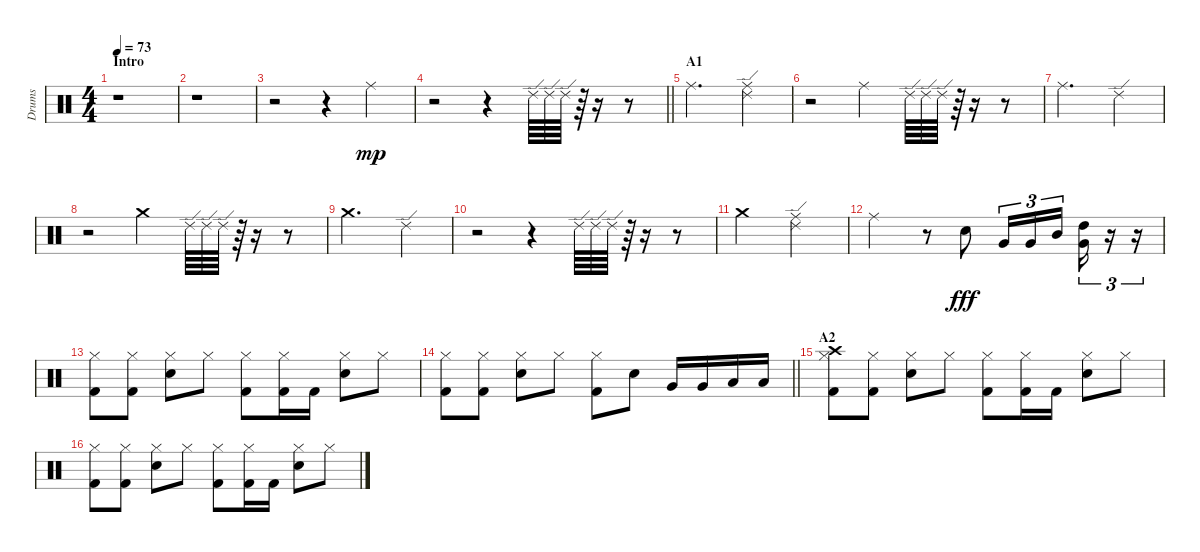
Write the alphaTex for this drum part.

\track ("Drums" "Drums") {instrument percussion}
\staff {score}
\articulation defaults
\ts (4 4)
\section ("" "Intro")
\tempo 73
\clef neutral
\ks c
r.1{dy mp} |
r.1 |
r.2 r.4 "Ride (middle)".4 |
\barLineRight lightlight
r.2 r.4 "Ride (edge) 2".64 "Ride (edge) 2".64 "Ride (edge) 2".64 r.64 r.16 r.8 |
\section ("" "A1")
"Ride (middle)".2{d} ("Ride (edge) 2" "Ride (middle)").4 |
r.2 "Ride (middle)".4 "Ride (edge) 2".64 "Ride (edge) 2".64 "Ride (edge) 2".64 r.64 r.16 r.8 |
"Ride (middle)".2{d} "Ride (edge) 2".4 |
r.2 "Crash medium (hit)".4 "Ride (edge) 2".64 "Ride (edge) 2".64 "Ride (edge) 2".64 r.64 r.16 r.8 |
"Crash medium (hit)".2{d} "Ride (edge) 2".4 |
r.2 r.4 "Ride (edge) 2".64 "Ride (edge) 2".64 "Ride (edge) 2".64 r.64 r.16 r.8 |
"Crash medium (hit)".2 ("Ride (edge) 2" "Ride (middle)").2 |
"Ride (middle)".2 r.8 "Snare (hit) 2".8{dy fff} "Very Low Tom (hit)".16{tu (3 2)} "Very Low Tom (hit)".16{tu (3 2)} "Mid Tom (hit)".16{tu (3 2)} ("High Tom (hit)" "Very Low Tom (hit)").16{tu (3 2)} r.16{tu (3 2)} r.16{tu (3 2)} |
("Hi-Hat (closed)" "Kick (hit) 2").8 ("Hi-Hat (closed)" "Kick (hit) 2").8 ("Hi-Hat (closed)" "Snare (hit) 2").8 "Hi-Hat (closed)".8 ("Hi-Hat (closed)" "Kick (hit) 2").8 ("Hi-Hat (closed)" "Kick (hit) 2").16 "Kick (hit) 2".16 ("Hi-Hat (closed)" "Snare (hit) 2").8 "Hi-Hat (closed)".8 |
\barLineRight lightlight
("Hi-Hat (closed)" "Kick (hit) 2").8 ("Hi-Hat (closed)" "Kick (hit) 2").8 ("Hi-Hat (closed)" "Snare (hit) 2").8 "Hi-Hat (closed)".8 ("Hi-Hat (closed)" "Kick (hit) 2").8 "Snare (hit) 2".8 "Very Low Tom (hit)".16 "Very Low Tom (hit)".16 "Low Tom (hit)".16 "Low Tom (hit)".16 |
\section ("" "A2")
("Hi-Hat (closed)" "Crash high (hit)" "Kick (hit) 2").8 ("Hi-Hat (closed)" "Kick (hit) 2").8 ("Hi-Hat (closed)" "Snare (hit) 2").8 "Hi-Hat (closed)".8 ("Hi-Hat (closed)" "Kick (hit) 2").8 ("Hi-Hat (closed)" "Kick (hit) 2").16 "Kick (hit) 2".16 ("Hi-Hat (closed)" "Snare (hit) 2").8 "Hi-Hat (closed)".8 |
("Hi-Hat (closed)" "Kick (hit) 2").8 ("Hi-Hat (closed)" "Kick (hit) 2").8 ("Hi-Hat (closed)" "Snare (hit) 2").8 "Hi-Hat (closed)".8 ("Hi-Hat (closed)" "Kick (hit) 2").8 ("Hi-Hat (closed)" "Kick (hit) 2").16 "Kick (hit) 2".16 ("Hi-Hat (closed)" "Snare (hit) 2").8 "Hi-Hat (closed)".8
